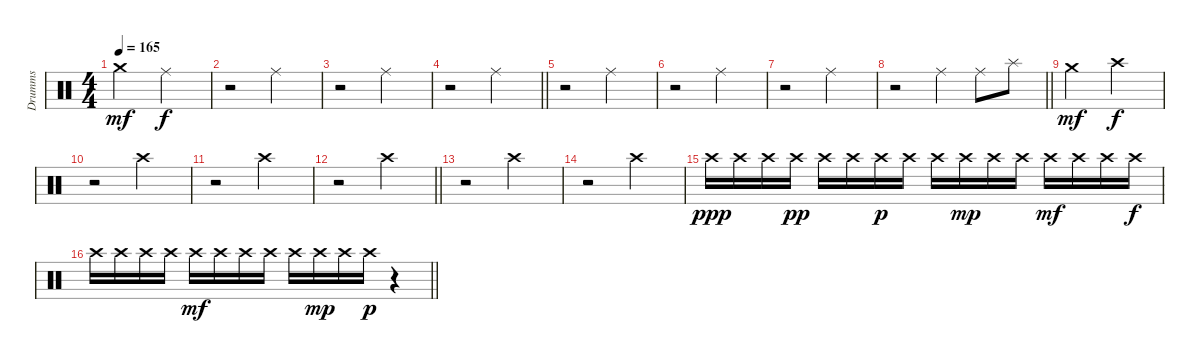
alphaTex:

\track ("Drumms" "Drumms") {instrument percussion}
\staff {score}
\articulation defaults
\ts (4 4)
\tempo 165
\clef neutral
\ks c "Crash medium (hit)".2{dy mf} "Ride (middle)".2{dy f}
|
r.2 "Ride (middle)".2 |
r.2 "Ride (middle)".2 |
\barLineRight lightlight
r.2 "Ride (middle)".2 |
r.2 "Ride (middle)".2 |
r.2 "Ride (middle)".2 |
r.2 "Ride (middle)".2 |
\barLineRight lightlight
r.2 "Ride (middle)".4 "Ride (middle)".8 "Splash (hit)".8 |
"Crash medium (hit)".2{dy mf} "Crash high (hit)".2{dy f} |
r.2 "Crash high (hit)".2 |
r.2 "Crash high (hit)".2 |
\barLineRight lightlight
r.2 "Crash high (hit)".2 |
r.2 "Crash high (hit)".2 |
r.2 "Crash high (hit)".2 |
"Crash high (hit)".16{dy ppp} "Crash high (hit)".16 "Crash high (hit)".16 "Crash high (hit)".16{dy pp} "Crash high (hit)".16 "Crash high (hit)".16 "Crash high (hit)".16{dy p} "Crash high (hit)".16 "Crash high (hit)".16 "Crash high (hit)".16{dy mp} "Crash high (hit)".16 "Crash high (hit)".16 "Crash high (hit)".16{dy mf} "Crash high (hit)".16 "Crash high (hit)".16 "Crash high (hit)".16{dy f} |
\barLineRight lightlight "Crash high (hit)".16 "Crash high (hit)".16 "Crash high (hit)".16 "Crash high (hit)".16 "Crash high (hit)".16{dy mf} "Crash high (hit)".16 "Crash high (hit)".16 "Crash high (hit)".16 "Crash high (hit)".16 "Crash high (hit)".16{dy mp} "Crash high (hit)".16 "Crash high (hit)".16{dy p}
r.4
